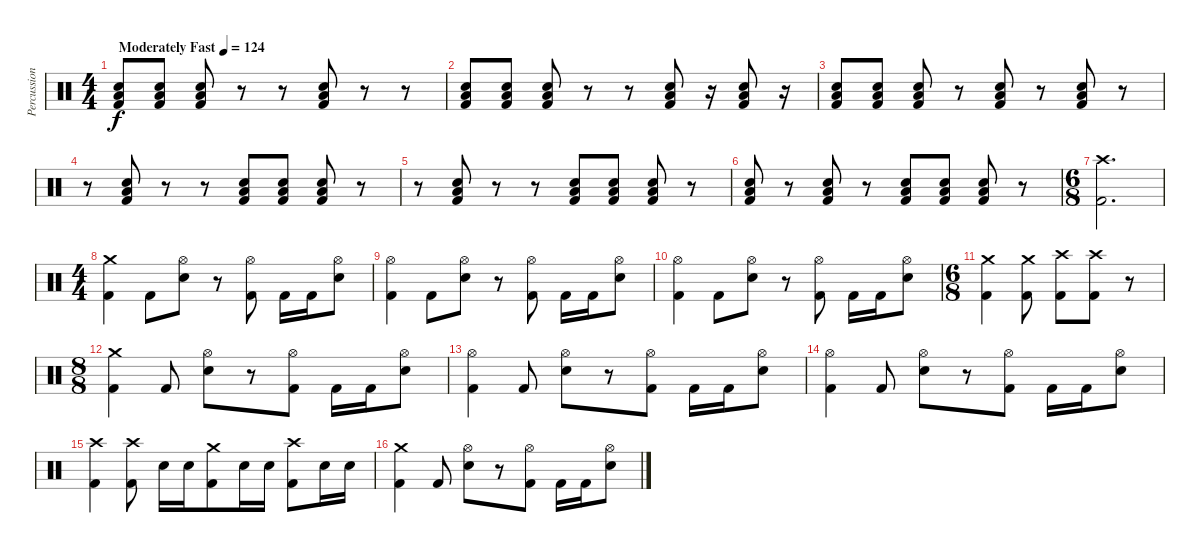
\track ("Percussion" "Percussion") {instrument percussion}
\staff {score}
\articulation defaults
\ts (4 4)
\tempo (124 "Moderately Fast")
\clef neutral
\ks c
("Kick (hit) 2" "Low Floor Tom (hit)" "Electric Snare (hit)").8{dy f} ("Kick (hit) 2" "Low Floor Tom (hit)" "Electric Snare (hit)").8 ("Kick (hit) 2" "Low Floor Tom (hit)" "Electric Snare (hit)").8 r.8 r.8 ("Kick (hit) 2" "Low Floor Tom (hit)" "Electric Snare (hit)").8 r.8 r.8 |
("Kick (hit) 2" "Low Floor Tom (hit)" "Electric Snare (hit)").8 ("Kick (hit) 2" "Low Floor Tom (hit)" "Electric Snare (hit)").8 ("Kick (hit) 2" "Low Floor Tom (hit)" "Electric Snare (hit)").8 r.8 r.8 ("Kick (hit) 2" "Low Floor Tom (hit)" "Electric Snare (hit)").8 r.16 ("Kick (hit) 2" "Low Floor Tom (hit)" "Electric Snare (hit)").8 r.16 |
("Kick (hit) 2" "Low Floor Tom (hit)" "Electric Snare (hit)").8 ("Kick (hit) 2" "Low Floor Tom (hit)" "Electric Snare (hit)").8 ("Kick (hit) 2" "Low Floor Tom (hit)" "Electric Snare (hit)").8 r.8 ("Kick (hit) 2" "Low Floor Tom (hit)" "Electric Snare (hit)").8 r.8 ("Kick (hit) 2" "Low Floor Tom (hit)" "Electric Snare (hit)").8 r.8 |
r.8 ("Kick (hit) 2" "Low Floor Tom (hit)" "Electric Snare (hit)").8 r.8 r.8 ("Kick (hit) 2" "Low Floor Tom (hit)" "Electric Snare (hit)").8 ("Kick (hit) 2" "Low Floor Tom (hit)" "Electric Snare (hit)").8 ("Kick (hit) 2" "Low Floor Tom (hit)" "Electric Snare (hit)").8 r.8 |
r.8 ("Kick (hit) 2" "Low Floor Tom (hit)" "Electric Snare (hit)").8 r.8 r.8 ("Kick (hit) 2" "Low Floor Tom (hit)" "Electric Snare (hit)").8 ("Kick (hit) 2" "Low Floor Tom (hit)" "Electric Snare (hit)").8 ("Kick (hit) 2" "Low Floor Tom (hit)" "Electric Snare (hit)").8 r.8 |
("Kick (hit) 2" "Low Floor Tom (hit)" "Electric Snare (hit)").8 r.8 ("Kick (hit) 2" "Low Floor Tom (hit)" "Electric Snare (hit)").8 r.8 ("Kick (hit) 2" "Low Floor Tom (hit)" "Electric Snare (hit)").8 ("Kick (hit) 2" "Low Floor Tom (hit)" "Electric Snare (hit)").8 ("Kick (hit) 2" "Low Floor Tom (hit)" "Electric Snare (hit)").8 r.8 |
\ts (6 8)
("Kick (hit) 2" "Crash high (hit)").2{d} |
\ts (4 4)
("Crash medium (hit)" "Kick (hit) 2").4 "Kick (hit) 2".8 ("Hi-Hat (open)" "Electric Snare (hit)").8 r.8 ("Hi-Hat (open)" "Kick (hit) 2").8 "Kick (hit) 2".16 "Kick (hit) 2".16 ("Hi-Hat (open)" "Electric Snare (hit)").8 |
("Hi-Hat (open)" "Kick (hit) 2").4 "Kick (hit) 2".8 ("Hi-Hat (open)" "Electric Snare (hit)").8 r.8 ("Hi-Hat (open)" "Kick (hit) 2").8 "Kick (hit) 2".16 "Kick (hit) 2".16 ("Hi-Hat (open)" "Electric Snare (hit)").8 |
("Hi-Hat (open)" "Kick (hit) 2").4 "Kick (hit) 2".8 ("Hi-Hat (open)" "Electric Snare (hit)").8 r.8 ("Hi-Hat (open)" "Kick (hit) 2").8 "Kick (hit) 2".16 "Kick (hit) 2".16 ("Hi-Hat (open)" "Electric Snare (hit)").8 |
\ts (6 8)
("Kick (hit) 2" "Crash medium (hit)").4 ("Crash medium (hit)" "Kick (hit) 2").8 ("Crash high (hit)" "Kick (hit) 2").8 ("Kick (hit) 2" "Crash high (hit)").8 r.8 |
\ts (8 8)
("Crash medium (hit)" "Kick (hit) 2").4 "Kick (hit) 2".8 ("Hi-Hat (open)" "Electric Snare (hit)").8 r.8 ("Hi-Hat (open)" "Kick (hit) 2").8 "Kick (hit) 2".16 "Kick (hit) 2".16 ("Hi-Hat (open)" "Electric Snare (hit)").8 |
("Hi-Hat (open)" "Kick (hit) 2").4 "Kick (hit) 2".8 ("Hi-Hat (open)" "Electric Snare (hit)").8 r.8 ("Hi-Hat (open)" "Kick (hit) 2").8 "Kick (hit) 2".16 "Kick (hit) 2".16 ("Hi-Hat (open)" "Electric Snare (hit)").8 |
("Hi-Hat (open)" "Kick (hit) 2").4 "Kick (hit) 2".8 ("Hi-Hat (open)" "Electric Snare (hit)").8 r.8 ("Hi-Hat (open)" "Kick (hit) 2").8 "Kick (hit) 2".16 "Kick (hit) 2".16 ("Hi-Hat (open)" "Electric Snare (hit)").8 |
("Crash high (hit)" "Kick (hit) 2").4 ("Crash high (hit)" "Kick (hit) 2").8 "Electric Snare (hit)".16 "Electric Snare (hit)".16 ("Crash medium (hit)" "Kick (hit) 2").8 "Electric Snare (hit)".16 "Electric Snare (hit)".16 ("Crash high (hit)" "Kick (hit) 2").8 "Electric Snare (hit)".16 "Electric Snare (hit)".16 |
("Crash medium (hit)" "Kick (hit) 2").4 "Kick (hit) 2".8 ("Hi-Hat (open)" "Electric Snare (hit)").8 r.8 ("Hi-Hat (open)" "Kick (hit) 2").8 "Kick (hit) 2".16 "Kick (hit) 2".16 ("Hi-Hat (open)" "Electric Snare (hit)").8
